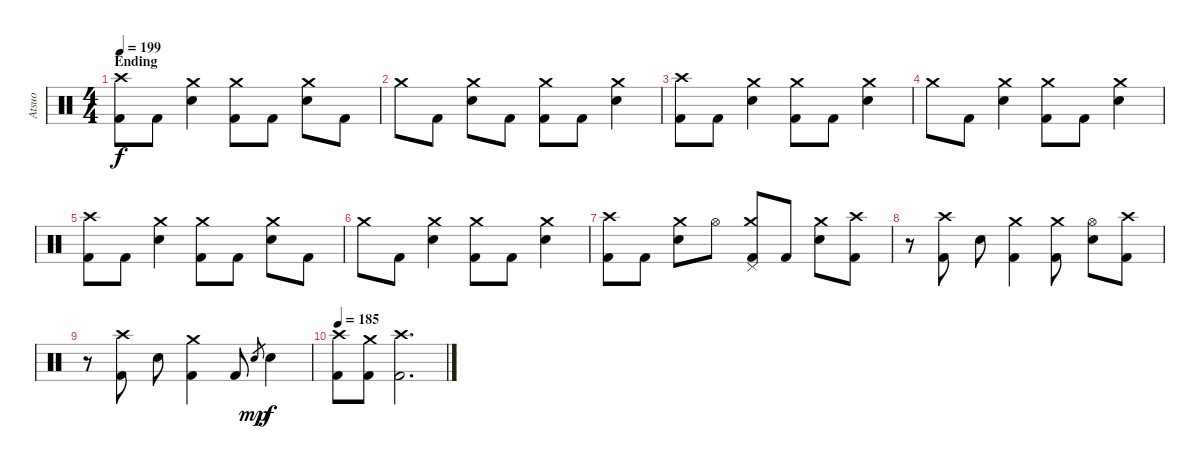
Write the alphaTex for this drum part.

\track ("Atsuo" "Atsuo") {instrument percussion}
\staff {score}
\articulation defaults
\ts (4 4)
\section ("" "Ending")
\tempo 199
\clef neutral
\ks c
("Crash high (hit)" "Kick (hit) 2").8{dy f} "Kick (hit) 2".8 ("Crash medium (hit)" "Electric Snare (hit)").4 ("Crash medium (hit)" "Kick (hit) 2").8 "Kick (hit) 2".8 ("Crash medium (hit)" "Electric Snare (hit)").8 "Kick (hit) 2".8 |
"Crash medium (hit)".8 "Kick (hit) 2".8 ("Crash medium (hit)" "Electric Snare (hit)").8 "Kick (hit) 2".8 ("Crash medium (hit)" "Kick (hit) 2").8 "Kick (hit) 2".8 ("Crash medium (hit)" "Electric Snare (hit)").4 |
("Crash high (hit)" "Kick (hit) 2").8 "Kick (hit) 2".8 ("Crash medium (hit)" "Electric Snare (hit)").4 ("Crash medium (hit)" "Kick (hit) 2").8 "Kick (hit) 2".8 ("Crash medium (hit)" "Electric Snare (hit)").4 |
"Crash medium (hit)".8 "Kick (hit) 2".8 ("Crash medium (hit)" "Electric Snare (hit)").4 ("Crash medium (hit)" "Kick (hit) 2").8 "Kick (hit) 2".8 ("Crash medium (hit)" "Electric Snare (hit)").4 |
("Crash high (hit)" "Kick (hit) 2").8 "Kick (hit) 2".8 ("Crash medium (hit)" "Electric Snare (hit)").4 ("Crash medium (hit)" "Kick (hit) 2").8 "Kick (hit) 2".8 ("Crash medium (hit)" "Electric Snare (hit)").8 "Kick (hit) 2".8 |
"Crash medium (hit)".8 "Kick (hit) 2".8 ("Crash medium (hit)" "Electric Snare (hit)").4 ("Crash medium (hit)" "Kick (hit) 2").8 "Kick (hit) 2".8 ("Crash medium (hit)" "Electric Snare (hit)").4 |
("Crash high (hit)" "Kick (hit) 2").8 "Kick (hit) 2".8 ("Crash medium (hit)" "Electric Snare (hit)").8 "Hi-Hat (open)".8 ("Pedal Hi-Hat (hit)" "Crash medium (hit)" "Kick (hit) 2").8 "Kick (hit) 2".8 ("Crash medium (hit)" "Electric Snare (hit)").8 ("Crash high (hit)" "Kick (hit) 2").8 |
r.8 ("Crash high (hit)" "Kick (hit) 2").8 "Electric Snare (hit)".8 ("Crash medium (hit)" "Kick (hit) 2").4 ("Crash medium (hit)" "Kick (hit) 2").8 ("Hi-Hat (open)" "Electric Snare (hit)").8 ("Crash high (hit)" "Kick (hit) 2").8 |
r.8 ("Crash high (hit)" "Kick (hit) 2").8 "Electric Snare (hit)".8 ("Crash medium (hit)" "Kick (hit) 2").4 "Kick (hit) 2".8 "Electric Snare (hit)".8{gr dy mp} "Electric Snare (hit)".4{dy f} |
\tempo 185
("Crash high (hit)" "Kick (hit) 2").8 ("Crash medium (hit)" "Kick (hit) 2").8 ("Crash high (hit)" "Kick (hit) 2").2{d}
